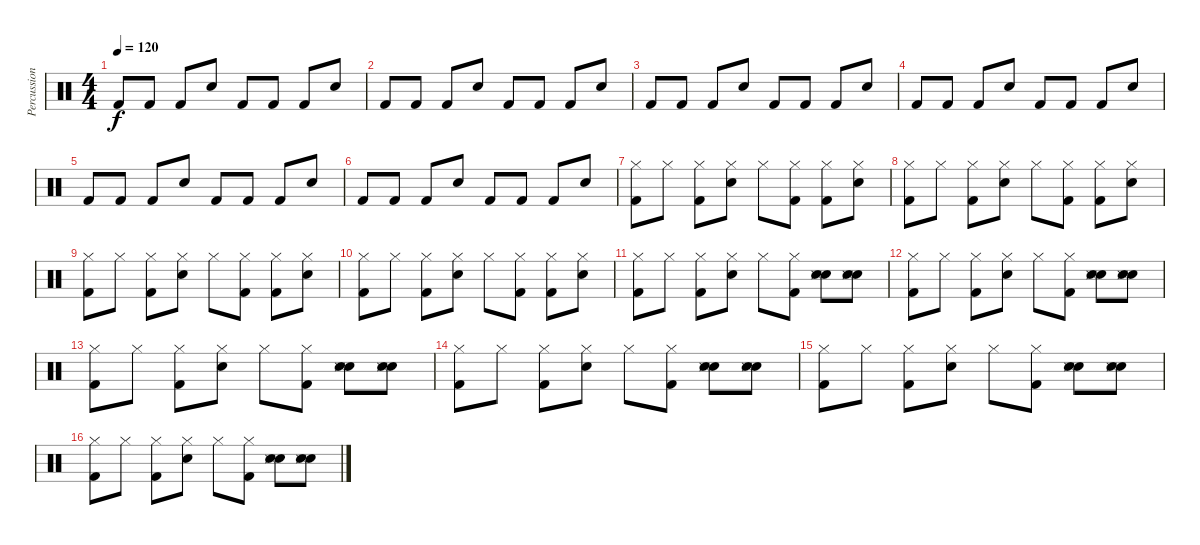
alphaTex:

\track ("Percussions" "Percussion") {instrument percussion}
\staff {score}
\articulation defaults
\ts (4 4)
\tempo 120
\clef neutral
\ks c "Kick (hit) 2".8{dy f} "Kick (hit) 2".8 "Kick (hit) 2".8 "Electric Snare (hit)".8 "Kick (hit) 2".8 "Kick (hit) 2".8 "Kick (hit) 2".8 "Electric Snare (hit)".8
|
"Kick (hit) 2".8 "Kick (hit) 2".8 "Kick (hit) 2".8 "Electric Snare (hit)".8 "Kick (hit) 2".8 "Kick (hit) 2".8 "Kick (hit) 2".8 "Electric Snare (hit)".8 |
"Kick (hit) 2".8 "Kick (hit) 2".8 "Kick (hit) 2".8 "Electric Snare (hit)".8 "Kick (hit) 2".8 "Kick (hit) 2".8 "Kick (hit) 2".8 "Electric Snare (hit)".8 |
"Kick (hit) 2".8 "Kick (hit) 2".8 "Kick (hit) 2".8 "Electric Snare (hit)".8 "Kick (hit) 2".8 "Kick (hit) 2".8 "Kick (hit) 2".8 "Electric Snare (hit)".8 |
"Kick (hit) 2".8 "Kick (hit) 2".8 "Kick (hit) 2".8 "Electric Snare (hit)".8 "Kick (hit) 2".8 "Kick (hit) 2".8 "Kick (hit) 2".8 "Electric Snare (hit)".8 |
"Kick (hit) 2".8 "Kick (hit) 2".8 "Kick (hit) 2".8 "Electric Snare (hit)".8 "Kick (hit) 2".8 "Kick (hit) 2".8 "Kick (hit) 2".8 "Electric Snare (hit)".8 |
("Hi-Hat (closed)" "Kick (hit) 2").8 "Hi-Hat (closed)".8 ("Hi-Hat (closed)" "Kick (hit) 2").8 ("Hi-Hat (closed)" "Electric Snare (hit)").8 "Hi-Hat (closed)".8 ("Hi-Hat (closed)" "Kick (hit) 2").8 ("Hi-Hat (closed)" "Kick (hit) 2").8 ("Hi-Hat (closed)" "Electric Snare (hit)").8 |
("Hi-Hat (closed)" "Kick (hit) 2").8 "Hi-Hat (closed)".8 ("Hi-Hat (closed)" "Kick (hit) 2").8 ("Hi-Hat (closed)" "Electric Snare (hit)").8 "Hi-Hat (closed)".8 ("Hi-Hat (closed)" "Kick (hit) 2").8 ("Hi-Hat (closed)" "Kick (hit) 2").8 ("Hi-Hat (closed)" "Electric Snare (hit)").8 |
("Hi-Hat (closed)" "Kick (hit) 2").8 "Hi-Hat (closed)".8 ("Hi-Hat (closed)" "Kick (hit) 2").8 ("Hi-Hat (closed)" "Electric Snare (hit)").8 "Hi-Hat (closed)".8 ("Hi-Hat (closed)" "Kick (hit) 2").8 ("Hi-Hat (closed)" "Kick (hit) 2").8 ("Hi-Hat (closed)" "Electric Snare (hit)").8 |
("Hi-Hat (closed)" "Kick (hit) 2").8 "Hi-Hat (closed)".8 ("Hi-Hat (closed)" "Kick (hit) 2").8 ("Hi-Hat (closed)" "Electric Snare (hit)").8 "Hi-Hat (closed)".8 ("Hi-Hat (closed)" "Kick (hit) 2").8 ("Hi-Hat (closed)" "Kick (hit) 2").8 ("Hi-Hat (closed)" "Electric Snare (hit)").8 |
("Hi-Hat (closed)" "Kick (hit) 2").8 "Hi-Hat (closed)".8 ("Hi-Hat (closed)" "Kick (hit) 2").8 ("Hi-Hat (closed)" "Electric Snare (hit)").8 "Hi-Hat (closed)".8 ("Hi-Hat (closed)" "Kick (hit) 2").8 ("Hand Clap (hit)" "Hand Clap (hit)" "Snare (side stick) 3").8 ("Hand Clap (hit)" "Hand Clap (hit)" "Snare (side stick) 3").8 |
("Hi-Hat (closed)" "Kick (hit) 2").8 "Hi-Hat (closed)".8 ("Hi-Hat (closed)" "Kick (hit) 2").8 ("Hi-Hat (closed)" "Electric Snare (hit)").8 "Hi-Hat (closed)".8 ("Hi-Hat (closed)" "Kick (hit) 2").8 ("Hand Clap (hit)" "Hand Clap (hit)" "Snare (side stick) 3").8 ("Hand Clap (hit)" "Hand Clap (hit)" "Snare (side stick) 3").8 |
("Hi-Hat (closed)" "Kick (hit) 2").8 "Hi-Hat (closed)".8 ("Hi-Hat (closed)" "Kick (hit) 2").8 ("Hi-Hat (closed)" "Electric Snare (hit)").8 "Hi-Hat (closed)".8 ("Hi-Hat (closed)" "Kick (hit) 2").8 ("Hand Clap (hit)" "Hand Clap (hit)" "Snare (side stick) 3").8 ("Hand Clap (hit)" "Hand Clap (hit)" "Snare (side stick) 3").8 |
("Hi-Hat (closed)" "Kick (hit) 2").8 "Hi-Hat (closed)".8 ("Hi-Hat (closed)" "Kick (hit) 2").8 ("Hi-Hat (closed)" "Electric Snare (hit)").8 "Hi-Hat (closed)".8 ("Hi-Hat (closed)" "Kick (hit) 2").8 ("Hand Clap (hit)" "Hand Clap (hit)" "Snare (side stick) 3").8 ("Hand Clap (hit)" "Hand Clap (hit)" "Snare (side stick) 3").8 |
("Hi-Hat (closed)" "Kick (hit) 2").8 "Hi-Hat (closed)".8 ("Hi-Hat (closed)" "Kick (hit) 2").8 ("Hi-Hat (closed)" "Electric Snare (hit)").8 "Hi-Hat (closed)".8 ("Hi-Hat (closed)" "Kick (hit) 2").8 ("Hand Clap (hit)" "Hand Clap (hit)" "Snare (side stick) 3").8 ("Hand Clap (hit)" "Hand Clap (hit)" "Snare (side stick) 3").8 |
("Hi-Hat (closed)" "Kick (hit) 2").8 "Hi-Hat (closed)".8 ("Hi-Hat (closed)" "Kick (hit) 2").8 ("Hi-Hat (closed)" "Electric Snare (hit)").8 "Hi-Hat (closed)".8 ("Hi-Hat (closed)" "Kick (hit) 2").8 ("Hand Clap (hit)" "Hand Clap (hit)" "Snare (side stick) 3").8 ("Hand Clap (hit)" "Hand Clap (hit)" "Snare (side stick) 3").8
